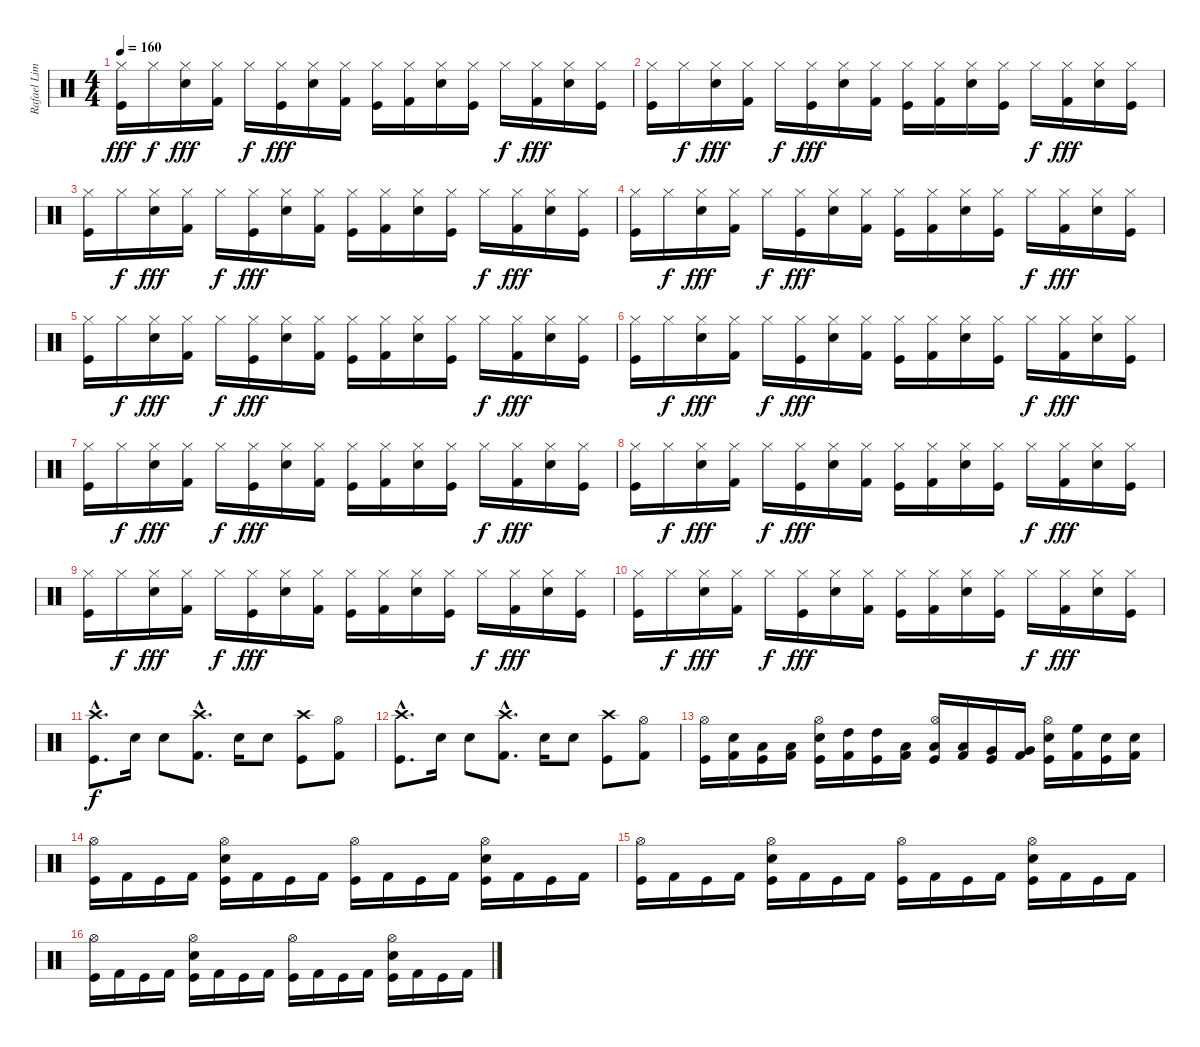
\track ("Rafael Lima" "Rafael Lim") {instrument percussion}
\staff {score}
\articulation defaults
\ts (4 4)
\tempo 160
\clef neutral
\ks c
("Hi-Hat (closed)" "Kick (hit)").16{dy fff} "Hi-Hat (closed)".16{dy f} ("Hi-Hat (closed)" "Electric Snare (hit)").16{dy fff} ("Hi-Hat (closed)" "Kick (hit) 2").16 "Hi-Hat (closed)".16{dy f} ("Hi-Hat (closed)" "Kick (hit)").16{dy fff} ("Hi-Hat (closed)" "Electric Snare (hit)").16 ("Hi-Hat (closed)" "Kick (hit) 2").16 ("Hi-Hat (closed)" "Kick (hit)").16 ("Hi-Hat (closed)" "Kick (hit) 2").16 ("Hi-Hat (closed)" "Electric Snare (hit)").16 ("Hi-Hat (closed)" "Kick (hit)").16 "Hi-Hat (closed)".16{dy f} ("Hi-Hat (closed)" "Kick (hit) 2").16{dy fff} ("Hi-Hat (closed)" "Electric Snare (hit)").16 ("Hi-Hat (closed)" "Kick (hit)").16 |
("Hi-Hat (closed)" "Kick (hit)").16 "Hi-Hat (closed)".16{dy f} ("Hi-Hat (closed)" "Electric Snare (hit)").16{dy fff} ("Hi-Hat (closed)" "Kick (hit) 2").16 "Hi-Hat (closed)".16{dy f} ("Hi-Hat (closed)" "Kick (hit)").16{dy fff} ("Hi-Hat (closed)" "Electric Snare (hit)").16 ("Hi-Hat (closed)" "Kick (hit) 2").16 ("Hi-Hat (closed)" "Kick (hit)").16 ("Hi-Hat (closed)" "Kick (hit) 2").16 ("Hi-Hat (closed)" "Electric Snare (hit)").16 ("Hi-Hat (closed)" "Kick (hit)").16 "Hi-Hat (closed)".16{dy f} ("Hi-Hat (closed)" "Kick (hit) 2").16{dy fff} ("Hi-Hat (closed)" "Electric Snare (hit)").16 ("Hi-Hat (closed)" "Kick (hit)").16 |
("Hi-Hat (closed)" "Kick (hit)").16 "Hi-Hat (closed)".16{dy f} ("Hi-Hat (closed)" "Electric Snare (hit)").16{dy fff} ("Hi-Hat (closed)" "Kick (hit) 2").16 "Hi-Hat (closed)".16{dy f} ("Hi-Hat (closed)" "Kick (hit)").16{dy fff} ("Hi-Hat (closed)" "Electric Snare (hit)").16 ("Hi-Hat (closed)" "Kick (hit) 2").16 ("Hi-Hat (closed)" "Kick (hit)").16 ("Hi-Hat (closed)" "Kick (hit) 2").16 ("Hi-Hat (closed)" "Electric Snare (hit)").16 ("Hi-Hat (closed)" "Kick (hit)").16 "Hi-Hat (closed)".16{dy f} ("Hi-Hat (closed)" "Kick (hit) 2").16{dy fff} ("Hi-Hat (closed)" "Electric Snare (hit)").16 ("Hi-Hat (closed)" "Kick (hit)").16 |
("Hi-Hat (closed)" "Kick (hit)").16 "Hi-Hat (closed)".16{dy f} ("Hi-Hat (closed)" "Electric Snare (hit)").16{dy fff} ("Hi-Hat (closed)" "Kick (hit) 2").16 "Hi-Hat (closed)".16{dy f} ("Hi-Hat (closed)" "Kick (hit)").16{dy fff} ("Hi-Hat (closed)" "Electric Snare (hit)").16 ("Hi-Hat (closed)" "Kick (hit) 2").16 ("Hi-Hat (closed)" "Kick (hit)").16 ("Hi-Hat (closed)" "Kick (hit) 2").16 ("Hi-Hat (closed)" "Electric Snare (hit)").16 ("Hi-Hat (closed)" "Kick (hit)").16 "Hi-Hat (closed)".16{dy f} ("Hi-Hat (closed)" "Kick (hit) 2").16{dy fff} ("Hi-Hat (closed)" "Electric Snare (hit)").16 ("Hi-Hat (closed)" "Kick (hit)").16 |
("Hi-Hat (closed)" "Kick (hit)").16 "Hi-Hat (closed)".16{dy f} ("Hi-Hat (closed)" "Electric Snare (hit)").16{dy fff} ("Hi-Hat (closed)" "Kick (hit) 2").16 "Hi-Hat (closed)".16{dy f} ("Hi-Hat (closed)" "Kick (hit)").16{dy fff} ("Hi-Hat (closed)" "Electric Snare (hit)").16 ("Hi-Hat (closed)" "Kick (hit) 2").16 ("Hi-Hat (closed)" "Kick (hit)").16 ("Hi-Hat (closed)" "Kick (hit) 2").16 ("Hi-Hat (closed)" "Electric Snare (hit)").16 ("Hi-Hat (closed)" "Kick (hit)").16 "Hi-Hat (closed)".16{dy f} ("Hi-Hat (closed)" "Kick (hit) 2").16{dy fff} ("Hi-Hat (closed)" "Electric Snare (hit)").16 ("Hi-Hat (closed)" "Kick (hit)").16 |
("Hi-Hat (closed)" "Kick (hit)").16 "Hi-Hat (closed)".16{dy f} ("Hi-Hat (closed)" "Electric Snare (hit)").16{dy fff} ("Hi-Hat (closed)" "Kick (hit) 2").16 "Hi-Hat (closed)".16{dy f} ("Hi-Hat (closed)" "Kick (hit)").16{dy fff} ("Hi-Hat (closed)" "Electric Snare (hit)").16 ("Hi-Hat (closed)" "Kick (hit) 2").16 ("Hi-Hat (closed)" "Kick (hit)").16 ("Hi-Hat (closed)" "Kick (hit) 2").16 ("Hi-Hat (closed)" "Electric Snare (hit)").16 ("Hi-Hat (closed)" "Kick (hit)").16 "Hi-Hat (closed)".16{dy f} ("Hi-Hat (closed)" "Kick (hit) 2").16{dy fff} ("Hi-Hat (closed)" "Electric Snare (hit)").16 ("Hi-Hat (closed)" "Kick (hit)").16 |
("Hi-Hat (closed)" "Kick (hit)").16 "Hi-Hat (closed)".16{dy f} ("Hi-Hat (closed)" "Electric Snare (hit)").16{dy fff} ("Hi-Hat (closed)" "Kick (hit) 2").16 "Hi-Hat (closed)".16{dy f} ("Hi-Hat (closed)" "Kick (hit)").16{dy fff} ("Hi-Hat (closed)" "Electric Snare (hit)").16 ("Hi-Hat (closed)" "Kick (hit) 2").16 ("Hi-Hat (closed)" "Kick (hit)").16 ("Hi-Hat (closed)" "Kick (hit) 2").16 ("Hi-Hat (closed)" "Electric Snare (hit)").16 ("Hi-Hat (closed)" "Kick (hit)").16 "Hi-Hat (closed)".16{dy f} ("Hi-Hat (closed)" "Kick (hit) 2").16{dy fff} ("Hi-Hat (closed)" "Electric Snare (hit)").16 ("Hi-Hat (closed)" "Kick (hit)").16 |
("Hi-Hat (closed)" "Kick (hit)").16 "Hi-Hat (closed)".16{dy f} ("Hi-Hat (closed)" "Electric Snare (hit)").16{dy fff} ("Hi-Hat (closed)" "Kick (hit) 2").16 "Hi-Hat (closed)".16{dy f} ("Hi-Hat (closed)" "Kick (hit)").16{dy fff} ("Hi-Hat (closed)" "Electric Snare (hit)").16 ("Hi-Hat (closed)" "Kick (hit) 2").16 ("Hi-Hat (closed)" "Kick (hit)").16 ("Hi-Hat (closed)" "Kick (hit) 2").16 ("Hi-Hat (closed)" "Electric Snare (hit)").16 ("Hi-Hat (closed)" "Kick (hit)").16 "Hi-Hat (closed)".16{dy f} ("Hi-Hat (closed)" "Kick (hit) 2").16{dy fff} ("Hi-Hat (closed)" "Electric Snare (hit)").16 ("Hi-Hat (closed)" "Kick (hit)").16 |
("Hi-Hat (closed)" "Kick (hit)").16 "Hi-Hat (closed)".16{dy f} ("Hi-Hat (closed)" "Electric Snare (hit)").16{dy fff} ("Hi-Hat (closed)" "Kick (hit) 2").16 "Hi-Hat (closed)".16{dy f} ("Hi-Hat (closed)" "Kick (hit)").16{dy fff} ("Hi-Hat (closed)" "Electric Snare (hit)").16 ("Hi-Hat (closed)" "Kick (hit) 2").16 ("Hi-Hat (closed)" "Kick (hit)").16 ("Hi-Hat (closed)" "Kick (hit) 2").16 ("Hi-Hat (closed)" "Electric Snare (hit)").16 ("Hi-Hat (closed)" "Kick (hit)").16 "Hi-Hat (closed)".16{dy f} ("Hi-Hat (closed)" "Kick (hit) 2").16{dy fff} ("Hi-Hat (closed)" "Electric Snare (hit)").16 ("Hi-Hat (closed)" "Kick (hit)").16 |
("Hi-Hat (closed)" "Kick (hit)").16 "Hi-Hat (closed)".16{dy f} ("Hi-Hat (closed)" "Electric Snare (hit)").16{dy fff} ("Hi-Hat (closed)" "Kick (hit) 2").16 "Hi-Hat (closed)".16{dy f} ("Hi-Hat (closed)" "Kick (hit)").16{dy fff} ("Hi-Hat (closed)" "Electric Snare (hit)").16 ("Hi-Hat (closed)" "Kick (hit) 2").16 ("Hi-Hat (closed)" "Kick (hit)").16 ("Hi-Hat (closed)" "Kick (hit) 2").16 ("Hi-Hat (closed)" "Electric Snare (hit)").16 ("Hi-Hat (closed)" "Kick (hit)").16 "Hi-Hat (closed)".16{dy f} ("Hi-Hat (closed)" "Kick (hit) 2").16{dy fff} ("Hi-Hat (closed)" "Electric Snare (hit)").16 ("Hi-Hat (closed)" "Kick (hit)").16 |
("Crash high (hit)"{hac} "Kick (hit)"{hac}).8{d dy f} "Electric Snare (hit)".16 "Electric Snare (hit)".8 ("Crash high (hit)"{hac} "Kick (hit) 2"{hac}).8{d} "Electric Snare (hit)".16 "Electric Snare (hit)".8 ("Crash high (hit)" "Kick (hit)").8 ("Hi-Hat (open)" "Kick (hit) 2").8 |
("Crash high (hit)"{hac} "Kick (hit)"{hac}).8{d} "Electric Snare (hit)".16 "Electric Snare (hit)".8 ("Crash high (hit)"{hac} "Kick (hit) 2"{hac}).8{d} "Electric Snare (hit)".16 "Electric Snare (hit)".8 ("Crash high (hit)" "Kick (hit)").8 ("Hi-Hat (open)" "Kick (hit) 2").8 |
("Hi-Hat (open)" "Kick (hit)").16 ("Electric Snare (hit)" "Kick (hit) 2").16 ("Low Tom (hit)" "Kick (hit)").16 ("Low Tom (hit)" "Kick (hit) 2").16 ("Hi-Hat (open)" "Electric Snare (hit)" "Kick (hit)").16 ("High Tom (hit)" "Kick (hit) 2").16 ("High Tom (hit)" "Kick (hit)").16 ("Low Floor Tom (hit)" "Kick (hit) 2").16 ("Hi-Hat (open)" "Low Floor Tom (hit)" "Kick (hit)").16 ("Low Floor Tom (hit)" "Kick (hit) 2").16 ("Very Low Tom (hit)" "Kick (hit)").16 ("Very Low Tom (hit)" "Kick (hit) 2").16 ("Hi-Hat (open)" "Electric Snare (hit)" "Kick (hit)").16 ("High Floor Tom (hit)" "Kick (hit) 2").16 ("Electric Snare (hit)" "Kick (hit)").16 ("Electric Snare (hit)" "Kick (hit) 2").16 |
("Hi-Hat (open)" "Kick (hit)").16 "Kick (hit) 2".16 "Kick (hit)".16 "Kick (hit) 2".16 ("Hi-Hat (open)" "Electric Snare (hit)" "Kick (hit)").16 "Kick (hit) 2".16 "Kick (hit)".16 "Kick (hit) 2".16 ("Hi-Hat (open)" "Kick (hit)").16 "Kick (hit) 2".16 "Kick (hit)".16 "Kick (hit) 2".16 ("Hi-Hat (open)" "Electric Snare (hit)" "Kick (hit)").16 "Kick (hit) 2".16 "Kick (hit)".16 "Kick (hit) 2".16 |
("Hi-Hat (open)" "Kick (hit)").16 "Kick (hit) 2".16 "Kick (hit)".16 "Kick (hit) 2".16 ("Hi-Hat (open)" "Electric Snare (hit)" "Kick (hit)").16 "Kick (hit) 2".16 "Kick (hit)".16 "Kick (hit) 2".16 ("Hi-Hat (open)" "Kick (hit)").16 "Kick (hit) 2".16 "Kick (hit)".16 "Kick (hit) 2".16 ("Hi-Hat (open)" "Electric Snare (hit)" "Kick (hit)").16 "Kick (hit) 2".16 "Kick (hit)".16 "Kick (hit) 2".16 |
("Hi-Hat (open)" "Kick (hit)").16 "Kick (hit) 2".16 "Kick (hit)".16 "Kick (hit) 2".16 ("Hi-Hat (open)" "Electric Snare (hit)" "Kick (hit)").16 "Kick (hit) 2".16 "Kick (hit)".16 "Kick (hit) 2".16 ("Hi-Hat (open)" "Kick (hit)").16 "Kick (hit) 2".16 "Kick (hit)".16 "Kick (hit) 2".16 ("Hi-Hat (open)" "Electric Snare (hit)" "Kick (hit)").16 "Kick (hit) 2".16 "Kick (hit)".16 "Kick (hit) 2".16
